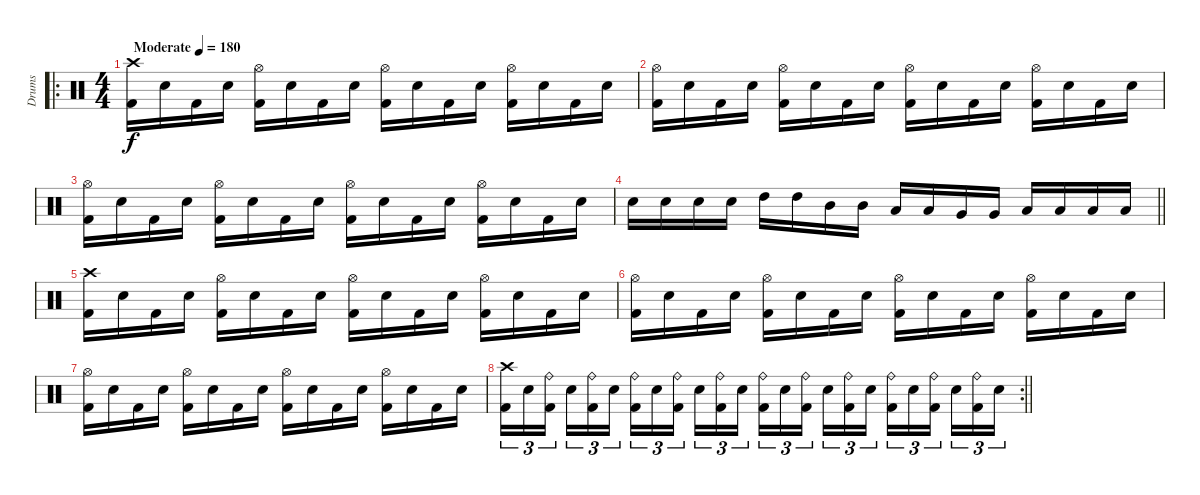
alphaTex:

\track ("Drums" "Drums") {solo instrument percussion}
\staff {score}
\articulation defaults
\ro
\ts (4 4)
\tempo (180 "Moderate")
\clef neutral
\ks c
("Kick (hit) 2" "Crash high (hit)").16{dy f} "Snare (hit) 2".16 "Kick (hit) 2".16 "Snare (hit) 2".16 ("Kick (hit) 2" "Hi-Hat (open)").16 "Snare (hit) 2".16 "Kick (hit) 2".16 "Snare (hit) 2".16 ("Kick (hit) 2" "Hi-Hat (open)").16 "Snare (hit) 2".16 "Kick (hit) 2".16 "Snare (hit) 2".16 ("Kick (hit) 2" "Hi-Hat (open)").16 "Snare (hit) 2".16 "Kick (hit) 2".16 "Snare (hit) 2".16 |
("Kick (hit) 2" "Hi-Hat (open)").16 "Snare (hit) 2".16 "Kick (hit) 2".16 "Snare (hit) 2".16 ("Kick (hit) 2" "Hi-Hat (open)").16 "Snare (hit) 2".16 "Kick (hit) 2".16 "Snare (hit) 2".16 ("Kick (hit) 2" "Hi-Hat (open)").16 "Snare (hit) 2".16 "Kick (hit) 2".16 "Snare (hit) 2".16 ("Kick (hit) 2" "Hi-Hat (open)").16 "Snare (hit) 2".16 "Kick (hit) 2".16 "Snare (hit) 2".16 |
("Kick (hit) 2" "Hi-Hat (open)").16 "Snare (hit) 2".16 "Kick (hit) 2".16 "Snare (hit) 2".16 ("Kick (hit) 2" "Hi-Hat (open)").16 "Snare (hit) 2".16 "Kick (hit) 2".16 "Snare (hit) 2".16 ("Kick (hit) 2" "Hi-Hat (open)").16 "Snare (hit) 2".16 "Kick (hit) 2".16 "Snare (hit) 2".16 ("Kick (hit) 2" "Hi-Hat (open)").16 "Snare (hit) 2".16 "Kick (hit) 2".16 "Snare (hit) 2".16 |
\barLineRight lightlight "Snare (hit) 2".16 "Snare (hit) 2".16 "Snare (hit) 2".16 "Snare (hit) 2".16 "High Tom (hit)".16 "High Tom (hit)".16 "Mid Tom (hit)".16 "Mid Tom (hit)".16 "Low Tom (hit)".16 "Low Tom (hit)".16 "Very Low Tom (hit)".16 "Very Low Tom (hit)".16 "Low Floor Tom (hit)".16 "Low Floor Tom (hit)".16 "Low Floor Tom (hit)".16 "Low Floor Tom (hit)".16
|
("Kick (hit) 2" "Crash high (hit)").16 "Snare (hit) 2".16 "Kick (hit) 2".16 "Snare (hit) 2".16 ("Kick (hit) 2" "Hi-Hat (open)").16 "Snare (hit) 2".16 "Kick (hit) 2".16 "Snare (hit) 2".16 ("Kick (hit) 2" "Hi-Hat (open)").16 "Snare (hit) 2".16 "Kick (hit) 2".16 "Snare (hit) 2".16 ("Kick (hit) 2" "Hi-Hat (open)").16 "Snare (hit) 2".16 "Kick (hit) 2".16 "Snare (hit) 2".16 |
("Kick (hit) 2" "Hi-Hat (open)").16 "Snare (hit) 2".16 "Kick (hit) 2".16 "Snare (hit) 2".16 ("Kick (hit) 2" "Hi-Hat (open)").16 "Snare (hit) 2".16 "Kick (hit) 2".16 "Snare (hit) 2".16 ("Kick (hit) 2" "Hi-Hat (open)").16 "Snare (hit) 2".16 "Kick (hit) 2".16 "Snare (hit) 2".16 ("Kick (hit) 2" "Hi-Hat (open)").16 "Snare (hit) 2".16 "Kick (hit) 2".16 "Snare (hit) 2".16 |
("Kick (hit) 2" "Hi-Hat (open)").16 "Snare (hit) 2".16 "Kick (hit) 2".16 "Snare (hit) 2".16 ("Kick (hit) 2" "Hi-Hat (open)").16 "Snare (hit) 2".16 "Kick (hit) 2".16 "Snare (hit) 2".16 ("Kick (hit) 2" "Hi-Hat (open)").16 "Snare (hit) 2".16 "Kick (hit) 2".16 "Snare (hit) 2".16 ("Kick (hit) 2" "Hi-Hat (open)").16 "Snare (hit) 2".16 "Kick (hit) 2".16 "Snare (hit) 2".16 |
\rc 2
\barLineRight lightlight
("Kick (hit) 2" "Crash high (hit)").16{tu (3 2)} "Snare (hit) 2".16{tu (3 2)} ("Kick (hit) 2" "Ride (bell)").16{tu (3 2) beam splitsecondary} "Snare (hit) 2".16{tu (3 2)} ("Kick (hit) 2" "Ride (bell)").16{tu (3 2)} "Snare (hit) 2".16{tu (3 2)} ("Kick (hit) 2" "Ride (bell)").16{tu (3 2)} "Snare (hit) 2".16{tu (3 2)} ("Kick (hit) 2" "Ride (bell)").16{tu (3 2) beam splitsecondary} "Snare (hit) 2".16{tu (3 2)} ("Kick (hit) 2" "Ride (bell)").16{tu (3 2)} "Snare (hit) 2".16{tu (3 2)} ("Kick (hit) 2" "Ride (bell)").16{tu (3 2)} "Snare (hit) 2".16{tu (3 2)} ("Kick (hit) 2" "Ride (bell)").16{tu (3 2) beam splitsecondary} "Snare (hit) 2".16{tu (3 2)} ("Kick (hit) 2" "Ride (bell)").16{tu (3 2)} "Snare (hit) 2".16{tu (3 2)} ("Kick (hit) 2" "Ride (bell)").16{tu (3 2)} "Snare (hit) 2".16{tu (3 2)} ("Kick (hit) 2" "Ride (bell)").16{tu (3 2) beam splitsecondary} "Snare (hit) 2".16{tu (3 2)} ("Kick (hit) 2" "Ride (bell)").16{tu (3 2)} "Snare (hit) 2".16{tu (3 2)}
